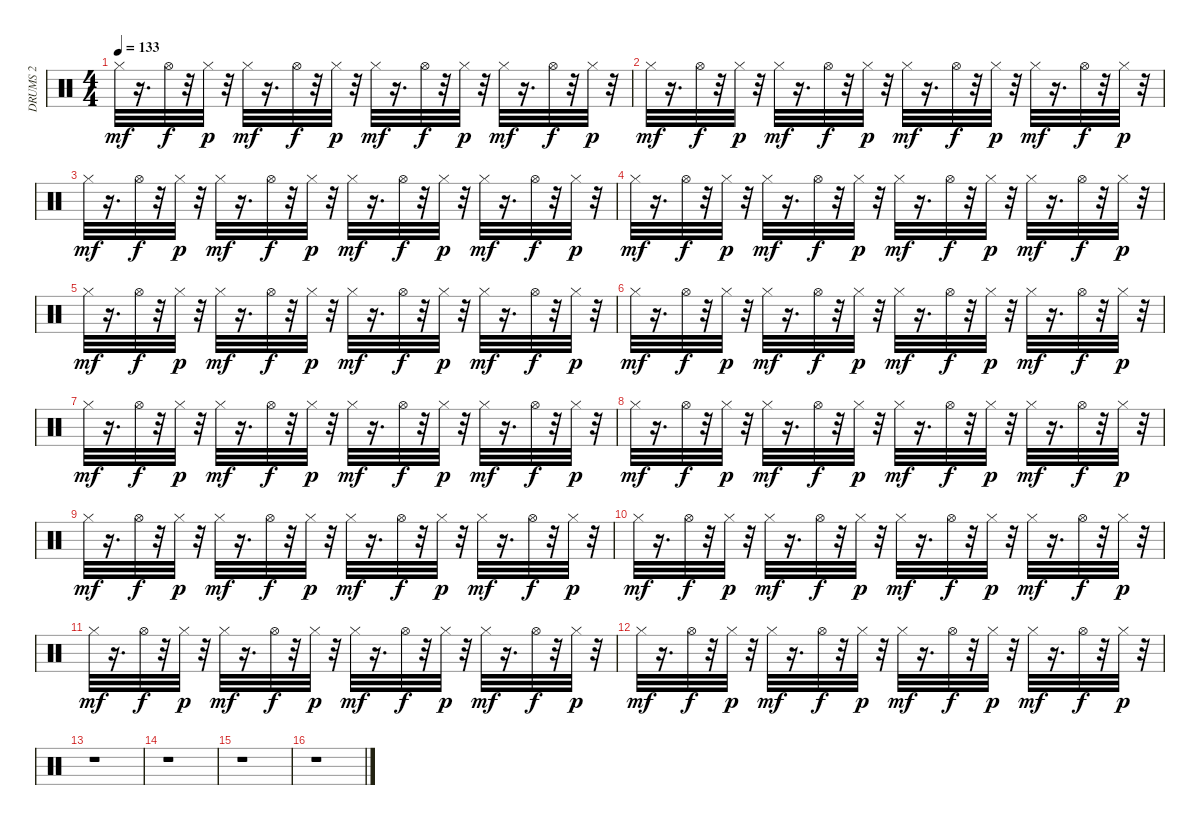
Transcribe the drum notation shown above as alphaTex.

\track ("DRUMS 2                             " "DRUMS 2   ") {instrument percussion}
\staff {score}
\articulation defaults
\ts (4 4)
\tempo 133
\clef neutral
\ks c "Hi-Hat (closed)".32{dy mf}
r.16{d} "Hi-Hat (open)".32{dy f} r.32 "Hi-Hat (closed)".32{dy p} r.32 "Hi-Hat (closed)".32{dy mf} r.16{d} "Hi-Hat (open)".32{dy f} r.32 "Hi-Hat (closed)".32{dy p} r.32 "Hi-Hat (closed)".32{dy mf} r.16{d} "Hi-Hat (open)".32{dy f} r.32 "Hi-Hat (closed)".32{dy p} r.32 "Hi-Hat (closed)".32{dy mf} r.16{d} "Hi-Hat (open)".32{dy f} r.32 "Hi-Hat (closed)".32{dy p} r.32 |
"Hi-Hat (closed)".32{dy mf} r.16{d} "Hi-Hat (open)".32{dy f} r.32 "Hi-Hat (closed)".32{dy p} r.32 "Hi-Hat (closed)".32{dy mf} r.16{d} "Hi-Hat (open)".32{dy f} r.32 "Hi-Hat (closed)".32{dy p} r.32 "Hi-Hat (closed)".32{dy mf} r.16{d} "Hi-Hat (open)".32{dy f} r.32 "Hi-Hat (closed)".32{dy p} r.32 "Hi-Hat (closed)".32{dy mf} r.16{d} "Hi-Hat (open)".32{dy f} r.32 "Hi-Hat (closed)".32{dy p} r.32 |
"Hi-Hat (closed)".32{dy mf} r.16{d} "Hi-Hat (open)".32{dy f} r.32 "Hi-Hat (closed)".32{dy p} r.32 "Hi-Hat (closed)".32{dy mf} r.16{d} "Hi-Hat (open)".32{dy f} r.32 "Hi-Hat (closed)".32{dy p} r.32 "Hi-Hat (closed)".32{dy mf} r.16{d} "Hi-Hat (open)".32{dy f} r.32 "Hi-Hat (closed)".32{dy p} r.32 "Hi-Hat (closed)".32{dy mf} r.16{d} "Hi-Hat (open)".32{dy f} r.32 "Hi-Hat (closed)".32{dy p} r.32 |
"Hi-Hat (closed)".32{dy mf} r.16{d} "Hi-Hat (open)".32{dy f} r.32 "Hi-Hat (closed)".32{dy p} r.32 "Hi-Hat (closed)".32{dy mf} r.16{d} "Hi-Hat (open)".32{dy f} r.32 "Hi-Hat (closed)".32{dy p} r.32 "Hi-Hat (closed)".32{dy mf} r.16{d} "Hi-Hat (open)".32{dy f} r.32 "Hi-Hat (closed)".32{dy p} r.32 "Hi-Hat (closed)".32{dy mf} r.16{d} "Hi-Hat (open)".32{dy f} r.32 "Hi-Hat (closed)".32{dy p} r.32 |
"Hi-Hat (closed)".32{dy mf} r.16{d} "Hi-Hat (open)".32{dy f} r.32 "Hi-Hat (closed)".32{dy p} r.32 "Hi-Hat (closed)".32{dy mf} r.16{d} "Hi-Hat (open)".32{dy f} r.32 "Hi-Hat (closed)".32{dy p} r.32 "Hi-Hat (closed)".32{dy mf} r.16{d} "Hi-Hat (open)".32{dy f} r.32 "Hi-Hat (closed)".32{dy p} r.32 "Hi-Hat (closed)".32{dy mf} r.16{d} "Hi-Hat (open)".32{dy f} r.32 "Hi-Hat (closed)".32{dy p} r.32 |
"Hi-Hat (closed)".32{dy mf} r.16{d} "Hi-Hat (open)".32{dy f} r.32 "Hi-Hat (closed)".32{dy p} r.32 "Hi-Hat (closed)".32{dy mf} r.16{d} "Hi-Hat (open)".32{dy f} r.32 "Hi-Hat (closed)".32{dy p} r.32 "Hi-Hat (closed)".32{dy mf} r.16{d} "Hi-Hat (open)".32{dy f} r.32 "Hi-Hat (closed)".32{dy p} r.32 "Hi-Hat (closed)".32{dy mf} r.16{d} "Hi-Hat (open)".32{dy f} r.32 "Hi-Hat (closed)".32{dy p} r.32 |
"Hi-Hat (closed)".32{dy mf} r.16{d} "Hi-Hat (open)".32{dy f} r.32 "Hi-Hat (closed)".32{dy p} r.32 "Hi-Hat (closed)".32{dy mf} r.16{d} "Hi-Hat (open)".32{dy f} r.32 "Hi-Hat (closed)".32{dy p} r.32 "Hi-Hat (closed)".32{dy mf} r.16{d} "Hi-Hat (open)".32{dy f} r.32 "Hi-Hat (closed)".32{dy p} r.32 "Hi-Hat (closed)".32{dy mf} r.16{d} "Hi-Hat (open)".32{dy f} r.32 "Hi-Hat (closed)".32{dy p} r.32 |
"Hi-Hat (closed)".32{dy mf} r.16{d} "Hi-Hat (open)".32{dy f} r.32 "Hi-Hat (closed)".32{dy p} r.32 "Hi-Hat (closed)".32{dy mf} r.16{d} "Hi-Hat (open)".32{dy f} r.32 "Hi-Hat (closed)".32{dy p} r.32 "Hi-Hat (closed)".32{dy mf} r.16{d} "Hi-Hat (open)".32{dy f} r.32 "Hi-Hat (closed)".32{dy p} r.32 "Hi-Hat (closed)".32{dy mf} r.16{d} "Hi-Hat (open)".32{dy f} r.32 "Hi-Hat (closed)".32{dy p} r.32 |
"Hi-Hat (closed)".32{dy mf} r.16{d} "Hi-Hat (open)".32{dy f} r.32 "Hi-Hat (closed)".32{dy p} r.32 "Hi-Hat (closed)".32{dy mf} r.16{d} "Hi-Hat (open)".32{dy f} r.32 "Hi-Hat (closed)".32{dy p} r.32 "Hi-Hat (closed)".32{dy mf} r.16{d} "Hi-Hat (open)".32{dy f} r.32 "Hi-Hat (closed)".32{dy p} r.32 "Hi-Hat (closed)".32{dy mf} r.16{d} "Hi-Hat (open)".32{dy f} r.32 "Hi-Hat (closed)".32{dy p} r.32 |
"Hi-Hat (closed)".32{dy mf} r.16{d} "Hi-Hat (open)".32{dy f} r.32 "Hi-Hat (closed)".32{dy p} r.32 "Hi-Hat (closed)".32{dy mf} r.16{d} "Hi-Hat (open)".32{dy f} r.32 "Hi-Hat (closed)".32{dy p} r.32 "Hi-Hat (closed)".32{dy mf} r.16{d} "Hi-Hat (open)".32{dy f} r.32 "Hi-Hat (closed)".32{dy p} r.32 "Hi-Hat (closed)".32{dy mf} r.16{d} "Hi-Hat (open)".32{dy f} r.32 "Hi-Hat (closed)".32{dy p} r.32 |
"Hi-Hat (closed)".32{dy mf} r.16{d} "Hi-Hat (open)".32{dy f} r.32 "Hi-Hat (closed)".32{dy p} r.32 "Hi-Hat (closed)".32{dy mf} r.16{d} "Hi-Hat (open)".32{dy f} r.32 "Hi-Hat (closed)".32{dy p} r.32 "Hi-Hat (closed)".32{dy mf} r.16{d} "Hi-Hat (open)".32{dy f} r.32 "Hi-Hat (closed)".32{dy p} r.32 "Hi-Hat (closed)".32{dy mf} r.16{d} "Hi-Hat (open)".32{dy f} r.32 "Hi-Hat (closed)".32{dy p} r.32 |
"Hi-Hat (closed)".32{dy mf} r.16{d} "Hi-Hat (open)".32{dy f} r.32 "Hi-Hat (closed)".32{dy p} r.32 "Hi-Hat (closed)".32{dy mf} r.16{d} "Hi-Hat (open)".32{dy f} r.32 "Hi-Hat (closed)".32{dy p} r.32 "Hi-Hat (closed)".32{dy mf} r.16{d} "Hi-Hat (open)".32{dy f} r.32 "Hi-Hat (closed)".32{dy p} r.32 "Hi-Hat (closed)".32{dy mf} r.16{d} "Hi-Hat (open)".32{dy f} r.32 "Hi-Hat (closed)".32{dy p} r.32 |
r.1 |
r.1 |
r.1 |
r.1
